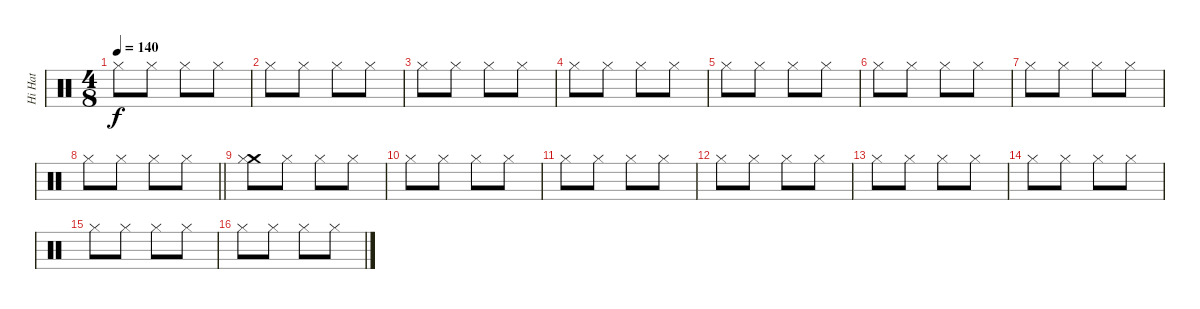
\track ("Hi Hat" "Hi Hat") {instrument percussion}
\staff {score}
\articulation defaults
\ts (4 8)
\tempo 140
\clef neutral
\ks c "Hi-Hat (closed)".8{dy f} "Hi-Hat (closed)".8 "Hi-Hat (closed)".8 "Hi-Hat (closed)".8
|
"Hi-Hat (closed)".8 "Hi-Hat (closed)".8 "Hi-Hat (closed)".8 "Hi-Hat (closed)".8 |
"Hi-Hat (closed)".8 "Hi-Hat (closed)".8 "Hi-Hat (closed)".8 "Hi-Hat (closed)".8 |
"Hi-Hat (closed)".8 "Hi-Hat (closed)".8 "Hi-Hat (closed)".8 "Hi-Hat (closed)".8 |
"Hi-Hat (closed)".8 "Hi-Hat (closed)".8 "Hi-Hat (closed)".8 "Hi-Hat (closed)".8 |
"Hi-Hat (closed)".8 "Hi-Hat (closed)".8 "Hi-Hat (closed)".8 "Hi-Hat (closed)".8 |
"Hi-Hat (closed)".8 "Hi-Hat (closed)".8 "Hi-Hat (closed)".8 "Hi-Hat (closed)".8 |
\barLineRight lightlight "Hi-Hat (closed)".8 "Hi-Hat (closed)".8 "Hi-Hat (closed)".8 "Hi-Hat (closed)".8
|
("Crash medium (hit)" "Hi-Hat (closed)").8 "Hi-Hat (closed)".8 "Hi-Hat (closed)".8 "Hi-Hat (closed)".8 |
"Hi-Hat (closed)".8 "Hi-Hat (closed)".8 "Hi-Hat (closed)".8 "Hi-Hat (closed)".8 |
"Hi-Hat (closed)".8 "Hi-Hat (closed)".8 "Hi-Hat (closed)".8 "Hi-Hat (closed)".8 |
"Hi-Hat (closed)".8 "Hi-Hat (closed)".8 "Hi-Hat (closed)".8 "Hi-Hat (closed)".8 |
"Hi-Hat (closed)".8 "Hi-Hat (closed)".8 "Hi-Hat (closed)".8 "Hi-Hat (closed)".8 |
"Hi-Hat (closed)".8 "Hi-Hat (closed)".8 "Hi-Hat (closed)".8 "Hi-Hat (closed)".8 |
"Hi-Hat (closed)".8 "Hi-Hat (closed)".8 "Hi-Hat (closed)".8 "Hi-Hat (closed)".8 |
"Hi-Hat (closed)".8 "Hi-Hat (closed)".8 "Hi-Hat (closed)".8 "Hi-Hat (closed)".8
